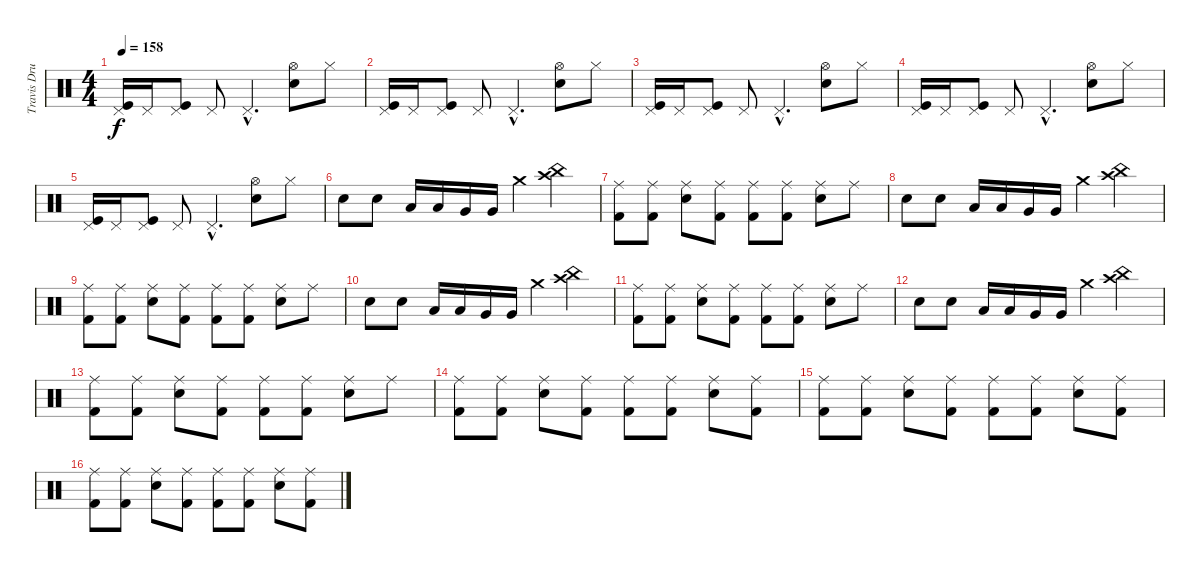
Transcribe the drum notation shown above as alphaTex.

\track ("Travis Drums" "Travis Dru") {instrument percussion}
\staff {score}
\articulation defaults
\ts (4 4)
\tempo 158
\clef neutral
\ks c
("Pedal Hi-Hat (hit)" "Kick (hit)").16{dy f} "Pedal Hi-Hat (hit)".16 ("Pedal Hi-Hat (hit)" "Kick (hit)").8 "Pedal Hi-Hat (hit)".8 "Pedal Hi-Hat (hit)"{hac}.4{d} ("Snare (hit) 2" "Hi-Hat (open)").8 "Hi-Hat (closed)".8 |
("Pedal Hi-Hat (hit)" "Kick (hit)").16 "Pedal Hi-Hat (hit)".16 ("Pedal Hi-Hat (hit)" "Kick (hit)").8 "Pedal Hi-Hat (hit)".8 "Pedal Hi-Hat (hit)"{hac}.4{d} ("Snare (hit) 2" "Hi-Hat (open)").8 "Hi-Hat (closed)".8 |
("Pedal Hi-Hat (hit)" "Kick (hit)").16 "Pedal Hi-Hat (hit)".16 ("Pedal Hi-Hat (hit)" "Kick (hit)").8 "Pedal Hi-Hat (hit)".8 "Pedal Hi-Hat (hit)"{hac}.4{d} ("Snare (hit) 2" "Hi-Hat (open)").8 "Hi-Hat (closed)".8 |
("Pedal Hi-Hat (hit)" "Kick (hit)").16 "Pedal Hi-Hat (hit)".16 ("Pedal Hi-Hat (hit)" "Kick (hit)").8 "Pedal Hi-Hat (hit)".8 "Pedal Hi-Hat (hit)"{hac}.4{d} ("Snare (hit) 2" "Hi-Hat (open)").8 "Hi-Hat (closed)".8 |
("Pedal Hi-Hat (hit)" "Kick (hit)").16 "Pedal Hi-Hat (hit)".16 ("Pedal Hi-Hat (hit)" "Kick (hit)").8 "Pedal Hi-Hat (hit)".8 "Pedal Hi-Hat (hit)"{hac}.4{d} ("Snare (hit) 2" "Hi-Hat (open)").8 "Hi-Hat (closed)".8 |
"Snare (hit) 2".8 "Snare (hit) 2".8 "Low Tom (hit)".16 "Low Tom (hit)".16 "Very Low Tom (hit)".16 "Very Low Tom (hit)".16 "Crash medium (hit)".4 ("China (hit)" "Crash high (hit)").4 |
("Ride (middle)" "Kick (hit) 2").8 ("Ride (middle)" "Kick (hit) 2").8 ("Ride (middle)" "Snare (hit) 2").8 ("Ride (middle)" "Kick (hit) 2").8 ("Ride (middle)" "Kick (hit) 2").8 ("Ride (middle)" "Kick (hit) 2").8 ("Ride (middle)" "Snare (hit) 2").8 "Ride (middle)".8 |
"Snare (hit) 2".8 "Snare (hit) 2".8 "Low Tom (hit)".16 "Low Tom (hit)".16 "Very Low Tom (hit)".16 "Very Low Tom (hit)".16 "Crash medium (hit)".4 ("China (hit)" "Crash high (hit)").4 |
("Ride (middle)" "Kick (hit) 2").8 ("Ride (middle)" "Kick (hit) 2").8 ("Ride (middle)" "Snare (hit) 2").8 ("Ride (middle)" "Kick (hit) 2").8 ("Ride (middle)" "Kick (hit) 2").8 ("Ride (middle)" "Kick (hit) 2").8 ("Ride (middle)" "Snare (hit) 2").8 "Ride (middle)".8 |
"Snare (hit) 2".8 "Snare (hit) 2".8 "Low Tom (hit)".16 "Low Tom (hit)".16 "Very Low Tom (hit)".16 "Very Low Tom (hit)".16 "Crash medium (hit)".4 ("China (hit)" "Crash high (hit)").4 |
("Ride (middle)" "Kick (hit) 2").8 ("Ride (middle)" "Kick (hit) 2").8 ("Ride (middle)" "Snare (hit) 2").8 ("Ride (middle)" "Kick (hit) 2").8 ("Ride (middle)" "Kick (hit) 2").8 ("Ride (middle)" "Kick (hit) 2").8 ("Ride (middle)" "Snare (hit) 2").8 "Ride (middle)".8 |
"Snare (hit) 2".8 "Snare (hit) 2".8 "Low Tom (hit)".16 "Low Tom (hit)".16 "Very Low Tom (hit)".16 "Very Low Tom (hit)".16 "Crash medium (hit)".4 ("China (hit)" "Crash high (hit)").4 |
("Ride (middle)" "Kick (hit) 2").8 ("Ride (middle)" "Kick (hit) 2").8 ("Ride (middle)" "Snare (hit) 2").8 ("Ride (middle)" "Kick (hit) 2").8 ("Ride (middle)" "Kick (hit) 2").8 ("Ride (middle)" "Kick (hit) 2").8 ("Ride (middle)" "Snare (hit) 2").8 "Ride (middle)".8 |
("Ride (middle)" "Kick (hit) 2").8 ("Ride (middle)" "Kick (hit) 2").8 ("Ride (middle)" "Snare (hit) 2").8 ("Ride (middle)" "Kick (hit) 2").8 ("Ride (middle)" "Kick (hit) 2").8 ("Ride (middle)" "Kick (hit) 2").8 ("Ride (middle)" "Snare (hit) 2").8 ("Ride (middle)" "Kick (hit) 2").8 |
("Ride (middle)" "Kick (hit) 2").8 ("Ride (middle)" "Kick (hit) 2").8 ("Ride (middle)" "Snare (hit) 2").8 ("Ride (middle)" "Kick (hit) 2").8 ("Ride (middle)" "Kick (hit) 2").8 ("Ride (middle)" "Kick (hit) 2").8 ("Ride (middle)" "Snare (hit) 2").8 ("Ride (middle)" "Kick (hit) 2").8 |
("Ride (middle)" "Kick (hit) 2").8 ("Ride (middle)" "Kick (hit) 2").8 ("Ride (middle)" "Snare (hit) 2").8 ("Ride (middle)" "Kick (hit) 2").8 ("Ride (middle)" "Kick (hit) 2").8 ("Ride (middle)" "Kick (hit) 2").8 ("Ride (middle)" "Snare (hit) 2").8 ("Ride (middle)" "Kick (hit) 2").8
